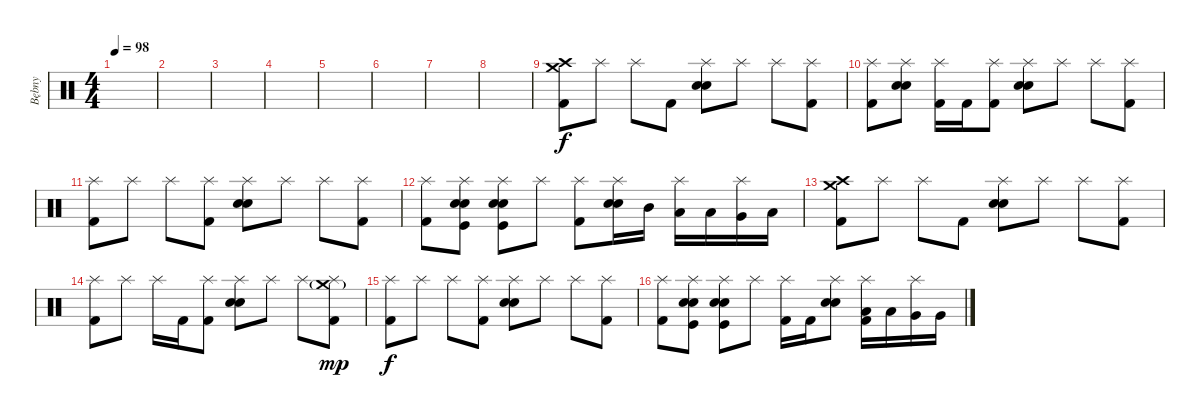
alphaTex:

\track ("Bębny" "Bębny") {instrument percussion}
\staff {score}
\articulation defaults
\ts (4 4)
\tempo 98
\clef neutral
\ks c
|
|
|
|
|
|
|
|
("Crash medium (hit)" "Crash high (hit)" "Kick (hit) 2").8 "Splash (hit)".8 "Splash (hit)".8 "Kick (hit) 2".8 ("Splash (hit)" "Electric Snare (hit)" "Snare (hit) 2").8 "Splash (hit)".8 "Splash (hit)".8 ("Splash (hit)" "Kick (hit) 2").8 |
("Splash (hit)" "Kick (hit) 2").8 ("Splash (hit)" "Electric Snare (hit)" "Snare (hit) 2").8 ("Splash (hit)" "Kick (hit) 2").16 "Kick (hit) 2".16 ("Splash (hit)" "Kick (hit) 2").8 ("Splash (hit)" "Electric Snare (hit)" "Snare (hit) 2").8 "Splash (hit)".8 "Splash (hit)".8 ("Splash (hit)" "Kick (hit) 2").8 |
("Splash (hit)" "Kick (hit) 2").8 "Splash (hit)".8 "Splash (hit)".8 ("Splash (hit)" "Kick (hit) 2").8 ("Splash (hit)" "Electric Snare (hit)" "Snare (hit) 2").8 "Splash (hit)".8 "Splash (hit)".8 ("Splash (hit)" "Kick (hit) 2").8 |
("Splash (hit)" "Kick (hit) 2").8 ("Splash (hit)" "Electric Snare (hit)" "Snare (hit) 2" "Kick (hit)").8 ("Splash (hit)" "Electric Snare (hit)" "Snare (hit) 2" "Kick (hit)").8 "Splash (hit)".8 ("Splash (hit)" "Kick (hit) 2").8 ("Splash (hit)" "Electric Snare (hit)" "Snare (hit) 2").16 "Mid Tom (hit)".16 ("Splash (hit)" "Low Tom (hit)").16 "Low Tom (hit)".16 ("Splash (hit)" "Very Low Tom (hit)").16 "Low Floor Tom (hit)".16 |
("Crash medium (hit)" "Crash high (hit)" "Kick (hit) 2").8 "Splash (hit)".8 "Splash (hit)".8 "Kick (hit) 2".8 ("Splash (hit)" "Electric Snare (hit)" "Snare (hit) 2").8 "Splash (hit)".8 "Splash (hit)".8 ("Splash (hit)" "Kick (hit) 2").8 |
("Splash (hit)" "Kick (hit) 2").8 "Splash (hit)".8 "Splash (hit)".16 "Kick (hit) 2".16 ("Splash (hit)" "Kick (hit) 2").8 ("Splash (hit)" "Electric Snare (hit)" "Snare (hit) 2").8 "Splash (hit)".8 "Splash (hit)".8 ("Splash (hit)" "Crash medium (hit)"{g} "Kick (hit) 2").8{dy mp} |
("Splash (hit)" "Kick (hit) 2").8{dy f} "Splash (hit)".8 "Splash (hit)".8 ("Splash (hit)" "Kick (hit) 2").8 ("Splash (hit)" "Electric Snare (hit)" "Snare (hit) 2").8 "Splash (hit)".8 "Splash (hit)".8 ("Splash (hit)" "Kick (hit) 2").8 |
("Splash (hit)" "Kick (hit) 2").8 ("Splash (hit)" "Electric Snare (hit)" "Snare (hit) 2" "Kick (hit)").8 ("Splash (hit)" "Electric Snare (hit)" "Snare (hit) 2" "Kick (hit)").8 "Splash (hit)".8 ("Splash (hit)" "Kick (hit) 2").16 "Kick (hit) 2".16 ("Splash (hit)" "Electric Snare (hit)" "Snare (hit) 2").8 ("Splash (hit)" "Low Tom (hit)" "Kick (hit) 2").16 "Low Tom (hit)".16 ("Splash (hit)" "Very Low Tom (hit)").16 "Very Low Tom (hit)".16
